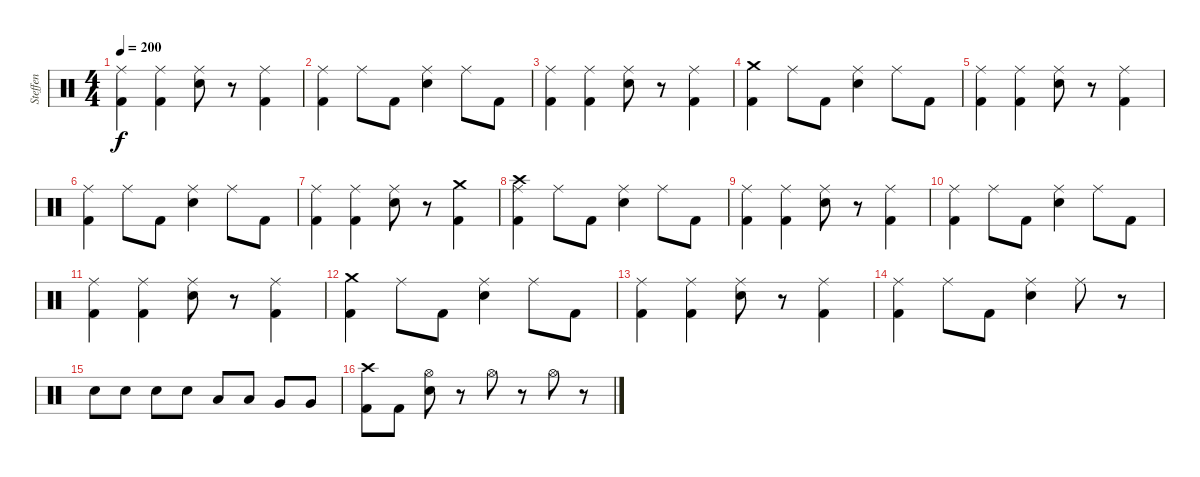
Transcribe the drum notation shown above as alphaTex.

\track ("Steffen" "Steffen") {instrument percussion}
\staff {score}
\articulation defaults
\ts (4 4)
\tempo 200
\clef neutral
\ks c
("Ride (middle)" "Kick (hit) 2").4{dy f} ("Ride (middle)" "Kick (hit) 2").4 ("Ride (middle)" "Electric Snare (hit)").8 r.8 ("Ride (middle)" "Kick (hit) 2").4 |
("Ride (middle)" "Kick (hit) 2").4 "Ride (middle)".8 "Kick (hit) 2".8 ("Ride (middle)" "Electric Snare (hit)").4 "Ride (middle)".8 "Kick (hit) 2".8 |
("Ride (middle)" "Kick (hit) 2").4 ("Ride (middle)" "Kick (hit) 2").4 ("Ride (middle)" "Electric Snare (hit)").8 r.8 ("Ride (middle)" "Kick (hit) 2").4 |
("Crash medium (hit)" "Kick (hit) 2").4 "Ride (middle)".8 "Kick (hit) 2".8 ("Ride (middle)" "Electric Snare (hit)").4 "Ride (middle)".8 "Kick (hit) 2".8 |
("Ride (middle)" "Kick (hit) 2").4 ("Ride (middle)" "Kick (hit) 2").4 ("Ride (middle)" "Electric Snare (hit)").8 r.8 ("Ride (middle)" "Kick (hit) 2").4 |
("Ride (middle)" "Kick (hit) 2").4 "Ride (middle)".8 "Kick (hit) 2".8 ("Ride (middle)" "Electric Snare (hit)").4 "Ride (middle)".8 "Kick (hit) 2".8 |
("Ride (middle)" "Kick (hit) 2").4 ("Ride (middle)" "Kick (hit) 2").4 ("Ride (middle)" "Electric Snare (hit)").8 r.8 ("Crash medium (hit)" "Kick (hit) 2").4 |
("Ride (middle)" "Crash high (hit)" "Kick (hit) 2").4 "Ride (middle)".8 "Kick (hit) 2".8 ("Ride (middle)" "Electric Snare (hit)").4 "Ride (middle)".8 "Kick (hit) 2".8 |
("Ride (middle)" "Kick (hit) 2").4 ("Ride (middle)" "Kick (hit) 2").4 ("Ride (middle)" "Electric Snare (hit)").8 r.8 ("Ride (middle)" "Kick (hit) 2").4 |
("Ride (middle)" "Kick (hit) 2").4 "Ride (middle)".8 "Kick (hit) 2".8 ("Ride (middle)" "Electric Snare (hit)").4 "Ride (middle)".8 "Kick (hit) 2".8 |
("Ride (middle)" "Kick (hit) 2").4 ("Ride (middle)" "Kick (hit) 2").4 ("Ride (middle)" "Electric Snare (hit)").8 r.8 ("Ride (middle)" "Kick (hit) 2").4 |
("Crash medium (hit)" "Kick (hit) 2").4 "Ride (middle)".8 "Kick (hit) 2".8 ("Ride (middle)" "Electric Snare (hit)").4 "Ride (middle)".8 "Kick (hit) 2".8 |
("Ride (middle)" "Kick (hit) 2").4 ("Ride (middle)" "Kick (hit) 2").4 ("Ride (middle)" "Electric Snare (hit)").8 r.8 ("Ride (middle)" "Kick (hit) 2").4 |
("Ride (middle)" "Kick (hit) 2").4 "Ride (middle)".8 "Kick (hit) 2".8 ("Ride (middle)" "Electric Snare (hit)").4 "Ride (middle)".8 r.8 |
"Electric Snare (hit)".8 "Electric Snare (hit)".8 "Electric Snare (hit)".8 "Electric Snare (hit)".8 "Low Tom (hit)".8 "Low Tom (hit)".8 "Very Low Tom (hit)".8 "Very Low Tom (hit)".8 |
("Crash high (hit)" "Kick (hit) 2").8 "Kick (hit) 2".8 ("Hi-Hat (open)" "Electric Snare (hit)").8 r.8 "Hi-Hat (open)".8 r.8 "Hi-Hat (open)".8 r.8
